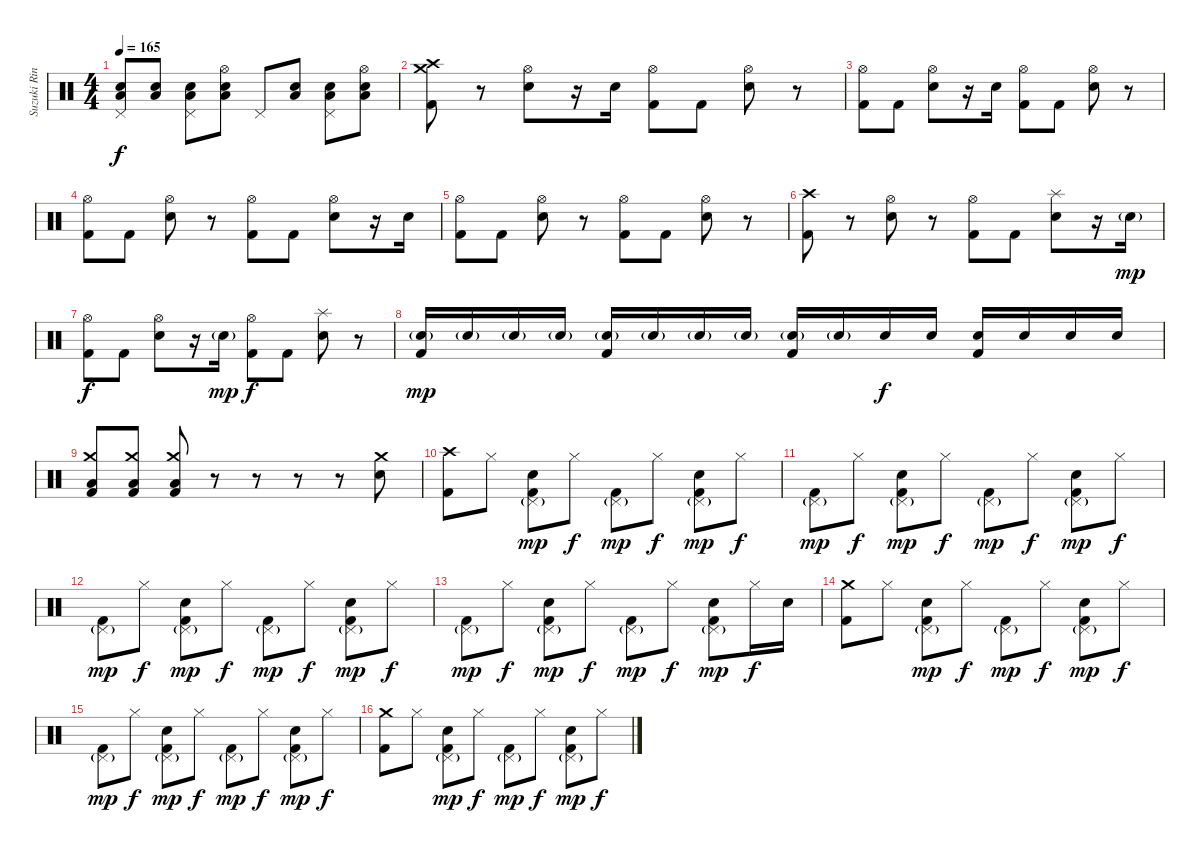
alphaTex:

\track ("Suzuki Rina" "Suzuki Rin") {instrument percussion}
\staff {score}
\articulation defaults
\ts (4 4)
\tempo 165
\clef neutral
\ks c
("Pedal Hi-Hat (hit)" "Electric Snare (hit)" "Low Floor Tom (hit)").8{dy f} ("Electric Snare (hit)" "Low Floor Tom (hit)").8 ("Pedal Hi-Hat (hit)" "Electric Snare (hit)" "Low Floor Tom (hit)").8 ("Hi-Hat (open)" "Electric Snare (hit)" "Low Floor Tom (hit)").8 "Pedal Hi-Hat (hit)".8 ("Electric Snare (hit)" "Low Floor Tom (hit)").8 ("Pedal Hi-Hat (hit)" "Electric Snare (hit)" "Low Floor Tom (hit)").8 ("Hi-Hat (open)" "Electric Snare (hit)" "Low Floor Tom (hit)").8 |
("Crash high (hit)" "Crash medium (hit)" "Kick (hit) 2").8 r.8 ("Hi-Hat (open)" "Electric Snare (hit)").8 r.16 "Electric Snare (hit)".16 ("Hi-Hat (open)" "Kick (hit) 2").8 "Kick (hit) 2".8 ("Hi-Hat (open)" "Electric Snare (hit)").8 r.8 |
("Hi-Hat (open)" "Kick (hit) 2").8 "Kick (hit) 2".8 ("Hi-Hat (open)" "Electric Snare (hit)").8 r.16 "Electric Snare (hit)".16 ("Hi-Hat (open)" "Kick (hit) 2").8 "Kick (hit) 2".8 ("Hi-Hat (open)" "Electric Snare (hit)").8 r.8 |
("Hi-Hat (open)" "Kick (hit) 2").8 "Kick (hit) 2".8 ("Hi-Hat (open)" "Electric Snare (hit)").8 r.8 ("Hi-Hat (open)" "Kick (hit) 2").8 "Kick (hit) 2".8 ("Hi-Hat (open)" "Electric Snare (hit)").8 r.16 "Electric Snare (hit)".16 |
("Hi-Hat (open)" "Kick (hit) 2").8 "Kick (hit) 2".8 ("Hi-Hat (open)" "Electric Snare (hit)").8 r.8 ("Hi-Hat (open)" "Kick (hit) 2").8 "Kick (hit) 2".8 ("Hi-Hat (open)" "Electric Snare (hit)").8 r.8 |
("Crash high (hit)" "Kick (hit) 2").8 r.8 ("Hi-Hat (open)" "Electric Snare (hit)").8 r.8 ("Hi-Hat (open)" "Kick (hit) 2").8 "Kick (hit) 2".8 ("Splash (hit)" "Electric Snare (hit)").8 r.16 "Electric Snare (hit)"{g}.16{dy mp} |
("Hi-Hat (open)" "Kick (hit) 2").8{dy f} "Kick (hit) 2".8 ("Hi-Hat (open)" "Electric Snare (hit)").8 r.16 "Electric Snare (hit)"{g}.16{dy mp} ("Hi-Hat (open)" "Kick (hit) 2").8{dy f} "Kick (hit) 2".8 ("Splash (hit)" "Electric Snare (hit)").8 r.8 |
("Electric Snare (hit)"{g} "Kick (hit) 2").16{dy mp} "Electric Snare (hit)"{g}.16 "Electric Snare (hit)"{g}.16 "Electric Snare (hit)"{g}.16 ("Electric Snare (hit)"{g} "Kick (hit) 2").16 "Electric Snare (hit)"{g}.16 "Electric Snare (hit)"{g}.16 "Electric Snare (hit)"{g}.16 ("Electric Snare (hit)"{g} "Kick (hit) 2").16 "Electric Snare (hit)"{g}.16 "Electric Snare (hit)".16{dy f} "Electric Snare (hit)".16 ("Electric Snare (hit)" "Kick (hit) 2").16 "Electric Snare (hit)".16 "Electric Snare (hit)".16 "Electric Snare (hit)".16 |
("Crash medium (hit)" "Low Floor Tom (hit)" "Kick (hit) 2").8 ("Crash medium (hit)" "Low Floor Tom (hit)" "Kick (hit) 2").8 ("Crash medium (hit)" "Low Floor Tom (hit)" "Kick (hit) 2").8 r.8 r.8 r.8 r.8 ("Crash medium (hit)" "Electric Snare (hit)").8 |
("Crash high (hit)" "Kick (hit) 2").8 "Hi-Hat (closed)".8 ("Pedal Hi-Hat (hit)"{g} "Electric Snare (hit)" "Kick (hit) 2").8{dy mp} "Hi-Hat (closed)".8{dy f} ("Pedal Hi-Hat (hit)"{g} "Kick (hit) 2").8{dy mp} "Hi-Hat (closed)".8{dy f} ("Pedal Hi-Hat (hit)"{g} "Electric Snare (hit)" "Kick (hit) 2").8{dy mp} "Hi-Hat (closed)".8{dy f} |
("Pedal Hi-Hat (hit)"{g} "Kick (hit) 2").8{dy mp} "Hi-Hat (closed)".8{dy f} ("Pedal Hi-Hat (hit)"{g} "Electric Snare (hit)" "Kick (hit) 2").8{dy mp} "Hi-Hat (closed)".8{dy f} ("Pedal Hi-Hat (hit)"{g} "Kick (hit) 2").8{dy mp} "Hi-Hat (closed)".8{dy f} ("Pedal Hi-Hat (hit)"{g} "Electric Snare (hit)" "Kick (hit) 2").8{dy mp} "Hi-Hat (closed)".8{dy f} |
("Pedal Hi-Hat (hit)"{g} "Kick (hit) 2").8{dy mp} "Hi-Hat (closed)".8{dy f} ("Pedal Hi-Hat (hit)"{g} "Electric Snare (hit)" "Kick (hit) 2").8{dy mp} "Hi-Hat (closed)".8{dy f} ("Pedal Hi-Hat (hit)"{g} "Kick (hit) 2").8{dy mp} "Hi-Hat (closed)".8{dy f} ("Pedal Hi-Hat (hit)"{g} "Electric Snare (hit)" "Kick (hit) 2").8{dy mp} "Hi-Hat (closed)".8{dy f} |
("Pedal Hi-Hat (hit)"{g} "Kick (hit) 2").8{dy mp} "Hi-Hat (closed)".8{dy f} ("Pedal Hi-Hat (hit)"{g} "Electric Snare (hit)" "Kick (hit) 2").8{dy mp} "Hi-Hat (closed)".8{dy f} ("Pedal Hi-Hat (hit)"{g} "Kick (hit) 2").8{dy mp} "Hi-Hat (closed)".8{dy f} ("Pedal Hi-Hat (hit)"{g} "Electric Snare (hit)" "Kick (hit) 2").8{dy mp} "Hi-Hat (closed)".16{dy f} "Electric Snare (hit)".16 |
("Crash medium (hit)" "Kick (hit) 2").8 "Hi-Hat (closed)".8 ("Pedal Hi-Hat (hit)"{g} "Electric Snare (hit)" "Kick (hit) 2").8{dy mp} "Hi-Hat (closed)".8{dy f} ("Pedal Hi-Hat (hit)"{g} "Kick (hit) 2").8{dy mp} "Hi-Hat (closed)".8{dy f} ("Pedal Hi-Hat (hit)"{g} "Electric Snare (hit)" "Kick (hit) 2").8{dy mp} "Hi-Hat (closed)".8{dy f} |
("Pedal Hi-Hat (hit)"{g} "Kick (hit) 2").8{dy mp} "Hi-Hat (closed)".8{dy f} ("Pedal Hi-Hat (hit)"{g} "Electric Snare (hit)" "Kick (hit) 2").8{dy mp} "Hi-Hat (closed)".8{dy f} ("Pedal Hi-Hat (hit)"{g} "Kick (hit) 2").8{dy mp} "Hi-Hat (closed)".8{dy f} ("Pedal Hi-Hat (hit)"{g} "Electric Snare (hit)" "Kick (hit) 2").8{dy mp} "Hi-Hat (closed)".8{dy f} |
("Crash medium (hit)" "Kick (hit) 2").8 "Hi-Hat (closed)".8 ("Pedal Hi-Hat (hit)"{g} "Electric Snare (hit)" "Kick (hit) 2").8{dy mp} "Hi-Hat (closed)".8{dy f} ("Pedal Hi-Hat (hit)"{g} "Kick (hit) 2").8{dy mp} "Hi-Hat (closed)".8{dy f} ("Pedal Hi-Hat (hit)"{g} "Electric Snare (hit)" "Kick (hit) 2").8{dy mp} "Hi-Hat (closed)".8{dy f}
